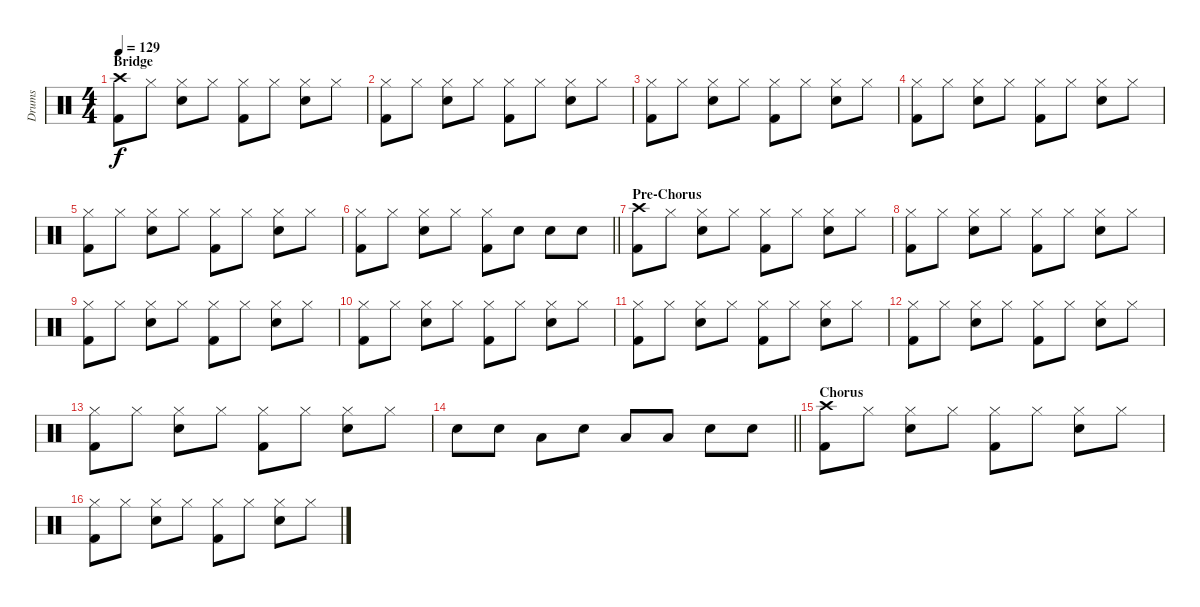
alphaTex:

\track ("Drums" "Drums") {instrument percussion}
\staff {score}
\articulation defaults
\ts (4 4)
\section ("" "Bridge")
\tempo 129
\clef neutral
\ks c
("Crash high (hit)" "Kick (hit) 2").8{dy f} "Hi-Hat (closed)".8 ("Hi-Hat (closed)" "Snare (hit) 2").8 "Hi-Hat (closed)".8 ("Hi-Hat (closed)" "Kick (hit) 2").8 "Hi-Hat (closed)".8 ("Hi-Hat (closed)" "Snare (hit) 2").8 "Hi-Hat (closed)".8 |
("Hi-Hat (closed)" "Kick (hit) 2").8 "Hi-Hat (closed)".8 ("Hi-Hat (closed)" "Snare (hit) 2").8 "Hi-Hat (closed)".8 ("Hi-Hat (closed)" "Kick (hit) 2").8 "Hi-Hat (closed)".8 ("Hi-Hat (closed)" "Snare (hit) 2").8 "Hi-Hat (closed)".8 |
("Hi-Hat (closed)" "Kick (hit) 2").8 "Hi-Hat (closed)".8 ("Hi-Hat (closed)" "Snare (hit) 2").8 "Hi-Hat (closed)".8 ("Hi-Hat (closed)" "Kick (hit) 2").8 "Hi-Hat (closed)".8 ("Hi-Hat (closed)" "Snare (hit) 2").8 "Hi-Hat (closed)".8 |
("Hi-Hat (closed)" "Kick (hit) 2").8 "Hi-Hat (closed)".8 ("Hi-Hat (closed)" "Snare (hit) 2").8 "Hi-Hat (closed)".8 ("Hi-Hat (closed)" "Kick (hit) 2").8 "Hi-Hat (closed)".8 ("Hi-Hat (closed)" "Snare (hit) 2").8 "Hi-Hat (closed)".8 |
("Hi-Hat (closed)" "Kick (hit) 2").8 "Hi-Hat (closed)".8 ("Hi-Hat (closed)" "Snare (hit) 2").8 "Hi-Hat (closed)".8 ("Hi-Hat (closed)" "Kick (hit) 2").8 "Hi-Hat (closed)".8 ("Hi-Hat (closed)" "Snare (hit) 2").8 "Hi-Hat (closed)".8 |
\barLineRight lightlight
("Hi-Hat (closed)" "Kick (hit) 2").8 "Hi-Hat (closed)".8 ("Hi-Hat (closed)" "Snare (hit) 2").8 "Hi-Hat (closed)".8 ("Hi-Hat (closed)" "Kick (hit) 2").8 "Snare (hit) 2".8 "Snare (hit) 2".8 "Snare (hit) 2".8 |
\section ("" "Pre-Chorus")
("Crash high (hit)" "Kick (hit) 2").8 "Hi-Hat (closed)".8 ("Hi-Hat (closed)" "Snare (hit) 2").8 "Hi-Hat (closed)".8 ("Hi-Hat (closed)" "Kick (hit) 2").8 "Hi-Hat (closed)".8 ("Hi-Hat (closed)" "Snare (hit) 2").8 "Hi-Hat (closed)".8 |
("Hi-Hat (closed)" "Kick (hit) 2").8 "Hi-Hat (closed)".8 ("Hi-Hat (closed)" "Snare (hit) 2").8 "Hi-Hat (closed)".8 ("Hi-Hat (closed)" "Kick (hit) 2").8 "Hi-Hat (closed)".8 ("Hi-Hat (closed)" "Snare (hit) 2").8 "Hi-Hat (closed)".8 |
("Hi-Hat (closed)" "Kick (hit) 2").8 "Hi-Hat (closed)".8 ("Hi-Hat (closed)" "Snare (hit) 2").8 "Hi-Hat (closed)".8 ("Hi-Hat (closed)" "Kick (hit) 2").8 "Hi-Hat (closed)".8 ("Hi-Hat (closed)" "Snare (hit) 2").8 "Hi-Hat (closed)".8 |
("Hi-Hat (closed)" "Kick (hit) 2").8 "Hi-Hat (closed)".8 ("Hi-Hat (closed)" "Snare (hit) 2").8 "Hi-Hat (closed)".8 ("Hi-Hat (closed)" "Kick (hit) 2").8 "Hi-Hat (closed)".8 ("Hi-Hat (closed)" "Snare (hit) 2").8 "Hi-Hat (closed)".8 |
("Hi-Hat (closed)" "Kick (hit) 2").8 "Hi-Hat (closed)".8 ("Hi-Hat (closed)" "Snare (hit) 2").8 "Hi-Hat (closed)".8 ("Hi-Hat (closed)" "Kick (hit) 2").8 "Hi-Hat (closed)".8 ("Hi-Hat (closed)" "Snare (hit) 2").8 "Hi-Hat (closed)".8 |
("Hi-Hat (closed)" "Kick (hit) 2").8 "Hi-Hat (closed)".8 ("Hi-Hat (closed)" "Snare (hit) 2").8 "Hi-Hat (closed)".8 ("Hi-Hat (closed)" "Kick (hit) 2").8 "Hi-Hat (closed)".8 ("Hi-Hat (closed)" "Snare (hit) 2").8 "Hi-Hat (closed)".8 |
("Hi-Hat (closed)" "Kick (hit) 2").8 "Hi-Hat (closed)".8 ("Hi-Hat (closed)" "Snare (hit) 2").8 "Hi-Hat (closed)".8 ("Hi-Hat (closed)" "Kick (hit) 2").8 "Hi-Hat (closed)".8 ("Hi-Hat (closed)" "Snare (hit) 2").8 "Hi-Hat (closed)".8 |
\barLineRight lightlight "Snare (hit) 2".8 "Snare (hit) 2".8 "Low Tom (hit)".8 "Snare (hit) 2".8 "Low Tom (hit)".8 "Low Tom (hit)".8 "Snare (hit) 2".8 "Snare (hit) 2".8
|
\section ("" "Chorus")
("Crash high (hit)" "Kick (hit) 2").8 "Hi-Hat (closed)".8 ("Hi-Hat (closed)" "Snare (hit) 2").8 "Hi-Hat (closed)".8 ("Hi-Hat (closed)" "Kick (hit) 2").8 "Hi-Hat (closed)".8 ("Hi-Hat (closed)" "Snare (hit) 2").8 "Hi-Hat (closed)".8 |
("Hi-Hat (closed)" "Kick (hit) 2").8 "Hi-Hat (closed)".8 ("Hi-Hat (closed)" "Snare (hit) 2").8 "Hi-Hat (closed)".8 ("Hi-Hat (closed)" "Kick (hit) 2").8 "Hi-Hat (closed)".8 ("Hi-Hat (closed)" "Snare (hit) 2").8 "Hi-Hat (closed)".8
